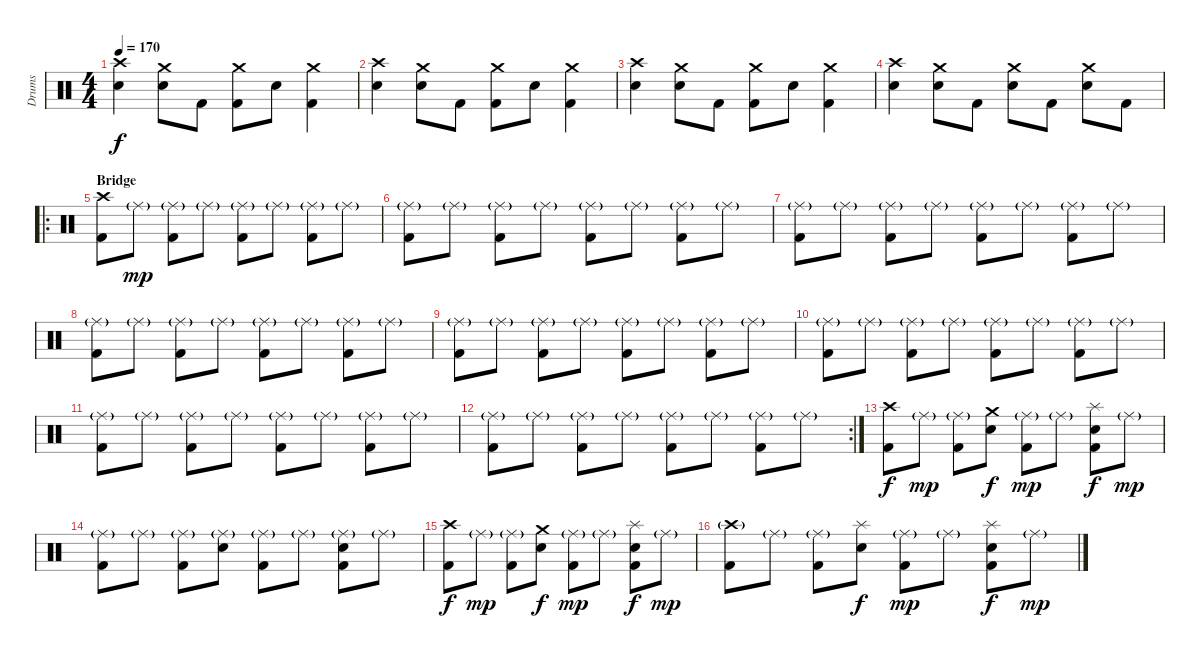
\track ("Drums" "Drums") {instrument percussion}
\staff {score}
\articulation defaults
\ts (4 4)
\tempo 170
\clef neutral
\ks c
("Crash high (hit)" "Electric Snare (hit)").4{dy f} ("Crash medium (hit)" "Electric Snare (hit)").8 "Kick (hit) 2".8 ("Crash medium (hit)" "Kick (hit) 2").8 "Electric Snare (hit)".8 ("Crash medium (hit)" "Kick (hit) 2").4 |
("Crash high (hit)" "Electric Snare (hit)").4 ("Crash medium (hit)" "Electric Snare (hit)").8 "Kick (hit) 2".8 ("Crash medium (hit)" "Kick (hit) 2").8 "Electric Snare (hit)".8 ("Crash medium (hit)" "Kick (hit) 2").4 |
("Crash high (hit)" "Electric Snare (hit)").4 ("Crash medium (hit)" "Electric Snare (hit)").8 "Kick (hit) 2".8 ("Crash medium (hit)" "Kick (hit) 2").8 "Electric Snare (hit)".8 ("Crash medium (hit)" "Kick (hit) 2").4 |
("Crash high (hit)" "Electric Snare (hit)").4 ("Crash medium (hit)" "Electric Snare (hit)").8 "Kick (hit) 2".8 ("Crash medium (hit)" "Electric Snare (hit)").8 "Kick (hit) 2".8 ("Crash medium (hit)" "Electric Snare (hit)").8 "Kick (hit) 2".8 |
\ro
\section ("" "Bridge")
("Crash high (hit)" "Kick (hit) 2").8 "Ride (middle)"{g}.8{dy mp} ("Ride (middle)"{g} "Kick (hit) 2").8 "Ride (middle)"{g}.8 ("Ride (middle)"{g} "Kick (hit) 2").8 "Ride (middle)"{g}.8 ("Ride (middle)"{g} "Kick (hit) 2").8 "Ride (middle)"{g}.8 |
("Ride (middle)"{g} "Kick (hit) 2").8 "Ride (middle)"{g}.8 ("Ride (middle)"{g} "Kick (hit) 2").8 "Ride (middle)"{g}.8 ("Ride (middle)"{g} "Kick (hit) 2").8 "Ride (middle)"{g}.8 ("Ride (middle)"{g} "Kick (hit) 2").8 "Ride (middle)"{g}.8 |
("Ride (middle)"{g} "Kick (hit) 2").8 "Ride (middle)"{g}.8 ("Ride (middle)"{g} "Kick (hit) 2").8 "Ride (middle)"{g}.8 ("Ride (middle)"{g} "Kick (hit) 2").8 "Ride (middle)"{g}.8 ("Ride (middle)"{g} "Kick (hit) 2").8 "Ride (middle)"{g}.8 |
("Ride (middle)"{g} "Kick (hit) 2").8 "Ride (middle)"{g}.8 ("Ride (middle)"{g} "Kick (hit) 2").8 "Ride (middle)"{g}.8 ("Ride (middle)"{g} "Kick (hit) 2").8 "Ride (middle)"{g}.8 ("Ride (middle)"{g} "Kick (hit) 2").8 "Ride (middle)"{g}.8 |
("Ride (middle)"{g} "Kick (hit) 2").8 "Ride (middle)"{g}.8 ("Ride (middle)"{g} "Kick (hit) 2").8 "Ride (middle)"{g}.8 ("Ride (middle)"{g} "Kick (hit) 2").8 "Ride (middle)"{g}.8 ("Ride (middle)"{g} "Kick (hit) 2").8 "Ride (middle)"{g}.8 |
("Ride (middle)"{g} "Kick (hit) 2").8 "Ride (middle)"{g}.8 ("Ride (middle)"{g} "Kick (hit) 2").8 "Ride (middle)"{g}.8 ("Ride (middle)"{g} "Kick (hit) 2").8 "Ride (middle)"{g}.8 ("Ride (middle)"{g} "Kick (hit) 2").8 "Ride (middle)"{g}.8 |
("Ride (middle)"{g} "Kick (hit) 2").8 "Ride (middle)"{g}.8 ("Ride (middle)"{g} "Kick (hit) 2").8 "Ride (middle)"{g}.8 ("Ride (middle)"{g} "Kick (hit) 2").8 "Ride (middle)"{g}.8 ("Ride (middle)"{g} "Kick (hit) 2").8 "Ride (middle)"{g}.8 |
\rc 2
("Ride (middle)"{g} "Kick (hit) 2").8 "Ride (middle)"{g}.8 ("Ride (middle)"{g} "Kick (hit) 2").8 "Ride (middle)"{g}.8 ("Ride (middle)"{g} "Kick (hit) 2").8 "Ride (middle)"{g}.8 ("Ride (middle)"{g} "Kick (hit) 2").8 "Ride (middle)"{g}.8 |
("Crash high (hit)" "Kick (hit) 2").8{dy f} "Ride (middle)"{g}.8{dy mp} ("Ride (middle)"{g} "Kick (hit) 2").8 ("Crash medium (hit)" "Electric Snare (hit)").8{dy f} ("Ride (middle)"{g} "Kick (hit) 2").8{dy mp} "Ride (middle)"{g}.8 ("Splash (hit)" "Kick (hit) 2" "Electric Snare (hit)").8{dy f} "Ride (middle)"{g}.8{dy mp} |
("Ride (middle)"{g} "Kick (hit) 2").8 "Ride (middle)"{g}.8 ("Ride (middle)"{g} "Kick (hit) 2").8 ("Ride (middle)"{g} "Electric Snare (hit)").8 ("Ride (middle)"{g} "Kick (hit) 2").8 "Ride (middle)"{g}.8 ("Ride (middle)"{g} "Kick (hit) 2" "Electric Snare (hit)").8 "Ride (middle)"{g}.8 |
("Crash high (hit)" "Kick (hit) 2").8{dy f} "Ride (middle)"{g}.8{dy mp} ("Ride (middle)"{g} "Kick (hit) 2").8 ("Crash medium (hit)" "Electric Snare (hit)").8{dy f} ("Ride (middle)"{g} "Kick (hit) 2").8{dy mp} "Ride (middle)"{g}.8 ("Splash (hit)" "Kick (hit) 2" "Electric Snare (hit)").8{dy f} "Ride (middle)"{g}.8{dy mp} |
("Crash high (hit)"{g} "Kick (hit) 2").8 "Ride (middle)"{g}.8 ("Ride (middle)"{g} "Kick (hit) 2").8 ("Splash (hit)" "Electric Snare (hit)").8{dy f} ("Ride (middle)"{g} "Kick (hit) 2").8{dy mp} "Ride (middle)"{g}.8 ("Splash (hit)" "Kick (hit) 2" "Electric Snare (hit)").8{dy f} "Ride (middle)"{g}.8{dy mp}
